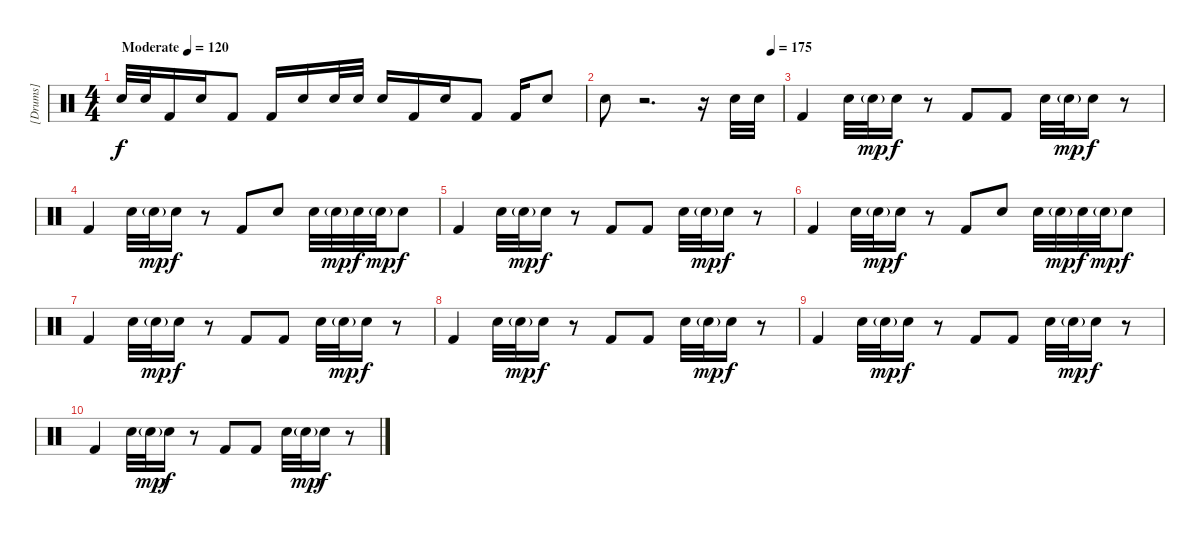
\track ("[Drums]" "[Drums]") {instrument percussion}
\staff {score}
\articulation defaults
\ts (4 4)
\tempo (120 "Moderate")
\clef neutral
\ks c "Electric Snare (hit)".32{dy f} "Electric Snare (hit)".32 "Kick (hit) 2".16 "Electric Snare (hit)".16 "Kick (hit) 2".8 "Kick (hit) 2".16 "Electric Snare (hit)".16 "Electric Snare (hit)".32 "Electric Snare (hit)".32 "Electric Snare (hit)".16 "Kick (hit) 2".16 "Electric Snare (hit)".16 "Kick (hit) 2".8 "Kick (hit) 2".16 "Electric Snare (hit)".8
|
\tempo (175 0.9375)
"Electric Snare (hit)".8 r.2{d} r.16 "Electric Snare (hit)".32 "Electric Snare (hit)".32 |
"Kick (hit) 2".4 "Electric Snare (hit)".32 "Electric Snare (hit)"{g}.32{dy mp} "Electric Snare (hit)".16{dy f} r.8 "Kick (hit) 2".8 "Kick (hit) 2".8 "Electric Snare (hit)".32 "Electric Snare (hit)"{g}.32{dy mp} "Electric Snare (hit)".16{dy f} r.8 |
"Kick (hit) 2".4 "Electric Snare (hit)".32 "Electric Snare (hit)"{g}.32{dy mp} "Electric Snare (hit)".16{dy f} r.8 "Kick (hit) 2".8 "Electric Snare (hit)".8 "Electric Snare (hit)".32 "Electric Snare (hit)"{g}.32{dy mp} "Electric Snare (hit)".32{dy f} "Electric Snare (hit)"{g}.32{dy mp} "Electric Snare (hit)".8{dy f} |
"Kick (hit) 2".4 "Electric Snare (hit)".32 "Electric Snare (hit)"{g}.32{dy mp} "Electric Snare (hit)".16{dy f} r.8 "Kick (hit) 2".8 "Kick (hit) 2".8 "Electric Snare (hit)".32 "Electric Snare (hit)"{g}.32{dy mp} "Electric Snare (hit)".16{dy f} r.8 |
"Kick (hit) 2".4 "Electric Snare (hit)".32 "Electric Snare (hit)"{g}.32{dy mp} "Electric Snare (hit)".16{dy f} r.8 "Kick (hit) 2".8 "Electric Snare (hit)".8 "Electric Snare (hit)".32 "Electric Snare (hit)"{g}.32{dy mp} "Electric Snare (hit)".32{dy f} "Electric Snare (hit)"{g}.32{dy mp} "Electric Snare (hit)".8{dy f} |
"Kick (hit) 2".4 "Electric Snare (hit)".32 "Electric Snare (hit)"{g}.32{dy mp} "Electric Snare (hit)".16{dy f} r.8 "Kick (hit) 2".8 "Kick (hit) 2".8 "Electric Snare (hit)".32 "Electric Snare (hit)"{g}.32{dy mp} "Electric Snare (hit)".16{dy f} r.8 |
"Kick (hit) 2".4 "Electric Snare (hit)".32 "Electric Snare (hit)"{g}.32{dy mp} "Electric Snare (hit)".16{dy f} r.8 "Kick (hit) 2".8 "Kick (hit) 2".8 "Electric Snare (hit)".32 "Electric Snare (hit)"{g}.32{dy mp} "Electric Snare (hit)".16{dy f} r.8 |
"Kick (hit) 2".4 "Electric Snare (hit)".32 "Electric Snare (hit)"{g}.32{dy mp} "Electric Snare (hit)".16{dy f} r.8 "Kick (hit) 2".8 "Kick (hit) 2".8 "Electric Snare (hit)".32 "Electric Snare (hit)"{g}.32{dy mp} "Electric Snare (hit)".16{dy f} r.8 |
"Kick (hit) 2".4 "Electric Snare (hit)".32 "Electric Snare (hit)"{g}.32{dy mp} "Electric Snare (hit)".16{dy f} r.8 "Kick (hit) 2".8 "Kick (hit) 2".8 "Electric Snare (hit)".32 "Electric Snare (hit)"{g}.32{dy mp} "Electric Snare (hit)".16{dy f} r.8
